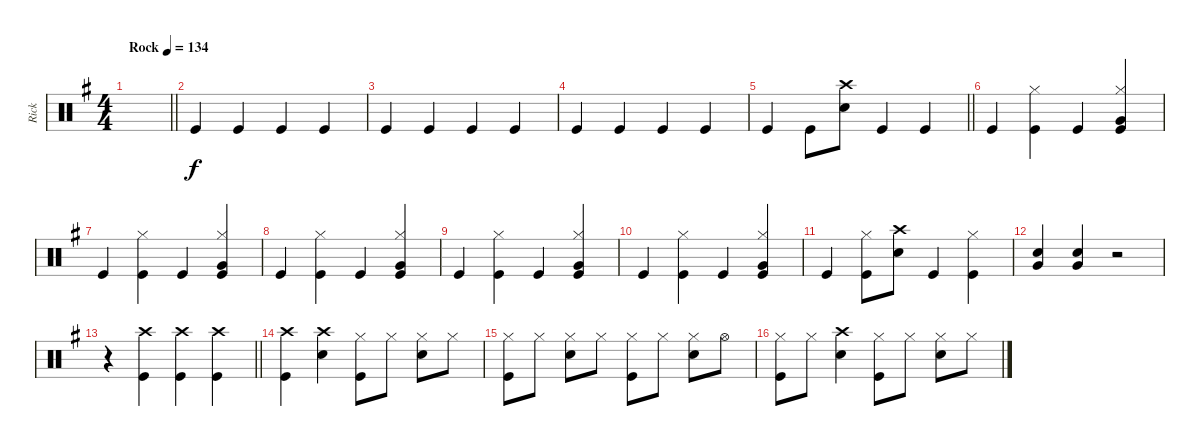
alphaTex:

\track ("Rick" "Rick") {instrument percussion}
\staff {score}
\articulation defaults
\ts (4 4)
\tempo (134 "Rock")
\clef neutral
\barLineRight lightlight
\ks g
|
"Kick (hit)".4 "Kick (hit)".4 "Kick (hit)".4 "Kick (hit)".4 |
"Kick (hit)".4 "Kick (hit)".4 "Kick (hit)".4 "Kick (hit)".4 |
"Kick (hit)".4 "Kick (hit)".4 "Kick (hit)".4 "Kick (hit)".4 |
\barLineRight lightlight "Kick (hit)".4 "Kick (hit)".8
("Crash high (hit)" "Snare (hit) 2").8 "Kick (hit)".4 "Kick (hit)".4 |
"Kick (hit)".4 ("Hi-Hat (closed)" "Kick (hit)").4 "Kick (hit)".4 ("Hi-Hat (closed)" "Very Low Tom (hit)" "Kick (hit)").4 |
"Kick (hit)".4 ("Hi-Hat (closed)" "Kick (hit)").4 "Kick (hit)".4 ("Hi-Hat (closed)" "Very Low Tom (hit)" "Kick (hit)").4 |
"Kick (hit)".4 ("Hi-Hat (closed)" "Kick (hit)").4 "Kick (hit)".4 ("Hi-Hat (closed)" "Very Low Tom (hit)" "Kick (hit)").4 |
"Kick (hit)".4 ("Hi-Hat (closed)" "Kick (hit)").4 "Kick (hit)".4 ("Hi-Hat (closed)" "Very Low Tom (hit)" "Kick (hit)").4 |
"Kick (hit)".4 ("Hi-Hat (closed)" "Kick (hit)").4 "Kick (hit)".4 ("Hi-Hat (closed)" "Very Low Tom (hit)" "Kick (hit)").4 |
"Kick (hit)".4 ("Hi-Hat (closed)" "Kick (hit)").8 ("Crash high (hit)" "Snare (hit) 2").8 "Kick (hit)".4 ("Hi-Hat (closed)" "Kick (hit)").4 |
("Snare (hit) 2" "Very Low Tom (hit)").4 ("Snare (hit) 2" "Very Low Tom (hit)").4 r.2 |
\barLineRight lightlight
r.4 ("Crash high (hit)" "Kick (hit)").4 ("Crash high (hit)" "Kick (hit)").4 ("Crash high (hit)" "Kick (hit)").4 |
("Crash high (hit)" "Kick (hit)").4 ("Crash high (hit)" "Snare (hit) 2").4 ("Hi-Hat (closed)" "Kick (hit)").8 "Hi-Hat (closed)".8 ("Hi-Hat (closed)" "Snare (hit) 2").8 "Hi-Hat (closed)".8 |
("Hi-Hat (closed)" "Kick (hit)").8 "Hi-Hat (closed)".8 ("Hi-Hat (closed)" "Snare (hit) 2").8 "Hi-Hat (closed)".8 ("Hi-Hat (closed)" "Kick (hit)").8 "Hi-Hat (closed)".8 ("Hi-Hat (closed)" "Snare (hit) 2").8 "Hi-Hat (open)".8 |
("Hi-Hat (closed)" "Kick (hit)").8 "Hi-Hat (closed)".8 ("Crash high (hit)" "Snare (hit) 2").4 ("Hi-Hat (closed)" "Kick (hit)").8 "Hi-Hat (closed)".8 ("Hi-Hat (closed)" "Snare (hit) 2").8 "Hi-Hat (closed)".8
